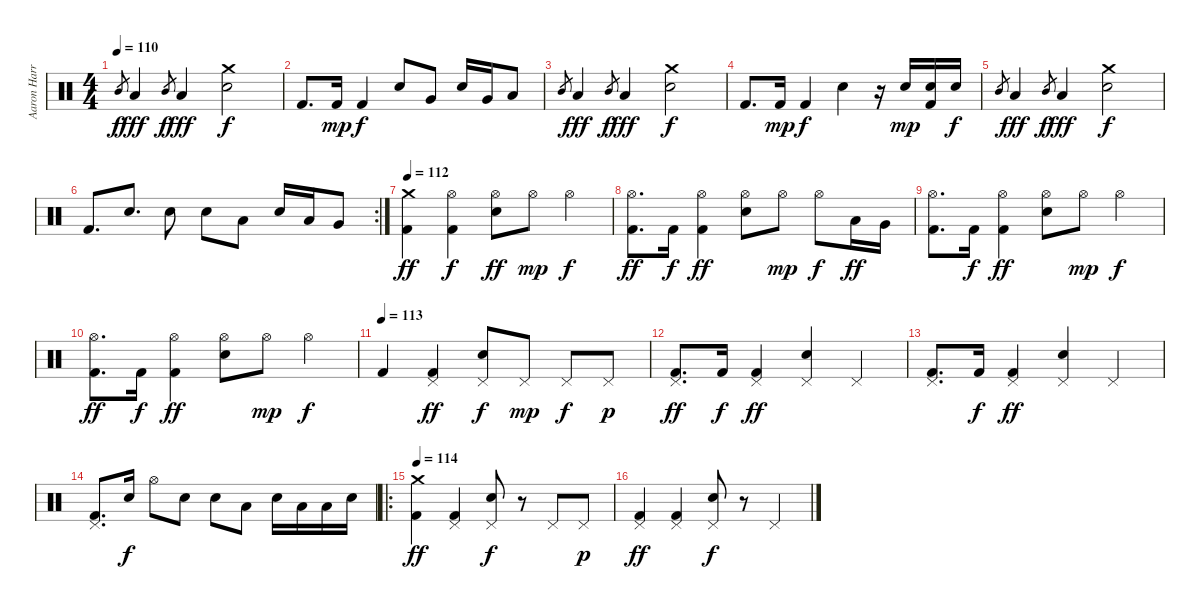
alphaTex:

\track ("Aaron Harris" "Aaron Harr") {instrument percussion}
\staff {score}
\articulation defaults
\ts (4 4)
\tempo 110
\clef neutral
\ks c "Mid Tom (hit)".8{gr dy f} "Low Tom (hit)".4{dy fff} "Mid Tom (hit)".8{gr dy f} "Low Tom (hit)".4{dy fff}
("Crash medium (hit)" "Electric Snare (hit)").2{dy f} |
"Kick (hit) 2".8{d} "Kick (hit) 2".16{dy mp} "Kick (hit) 2".4{dy f} "Electric Snare (hit)".8 "Very Low Tom (hit)".8 "Electric Snare (hit)".16 "Very Low Tom (hit)".16 "Low Floor Tom (hit)".8 |
"Mid Tom (hit)".8{gr} "Low Tom (hit)".4{dy fff} "Mid Tom (hit)".8{gr dy f} "Low Tom (hit)".4{dy fff} ("Crash medium (hit)" "Electric Snare (hit)").2{dy f} |
"Kick (hit) 2".8{d} "Kick (hit) 2".16{dy mp} "Kick (hit) 2".4{dy f} "Electric Snare (hit)".4 r.16 "Electric Snare (hit)".16{dy mp} ("Electric Snare (hit)" "Kick (hit) 2").16 "Electric Snare (hit)".16{dy f} |
"Mid Tom (hit)".8{gr} "Low Tom (hit)".4{dy fff} "Mid Tom (hit)".8{gr dy f} "Low Tom (hit)".4{dy fff} ("Crash medium (hit)" "Electric Snare (hit)").2{dy f} |
\rc 2 "Kick (hit) 2".8{d} "Electric Snare (hit)".8{d} "Electric Snare (hit)".8 "Electric Snare (hit)".8 "Low Tom (hit)".8 "Electric Snare (hit)".16 "Low Tom (hit)".16 "Very Low Tom (hit)".8
|
\tempo 112
("Crash medium (hit)" "Kick (hit) 2").4{dy ff} ("Hi-Hat (open)" "Kick (hit) 2").4{dy f} ("Hi-Hat (open)" "Electric Snare (hit)").8{dy ff} "Hi-Hat (open)".8{dy mp} "Hi-Hat (open)".4{dy f} |
("Hi-Hat (open)" "Kick (hit) 2").8{d dy ff} "Kick (hit) 2".16{dy f} ("Hi-Hat (open)" "Kick (hit) 2").4{dy ff} ("Hi-Hat (open)" "Electric Snare (hit)").8 "Hi-Hat (open)".8{dy mp} "Hi-Hat (open)".8{dy f} "Low Tom (hit)".16{dy ff} "Very Low Tom (hit)".16 |
("Hi-Hat (open)" "Kick (hit) 2").8{d} "Kick (hit) 2".16{dy f} ("Hi-Hat (open)" "Kick (hit) 2").4{dy ff} ("Hi-Hat (open)" "Electric Snare (hit)").8 "Hi-Hat (open)".8{dy mp} "Hi-Hat (open)".4{dy f} |
("Hi-Hat (open)" "Kick (hit) 2").8{d dy ff} "Kick (hit) 2".16{dy f} ("Hi-Hat (open)" "Kick (hit) 2").4{dy ff} ("Hi-Hat (open)" "Electric Snare (hit)").8 "Hi-Hat (open)".8{dy mp} "Hi-Hat (open)".4{dy f} |
\tempo (113)
"Kick (hit) 2".4 ("Pedal Hi-Hat (hit)" "Kick (hit) 2").4{dy ff} ("Pedal Hi-Hat (hit)" "Electric Snare (hit)").8{dy f} "Pedal Hi-Hat (hit)".8{dy mp} "Pedal Hi-Hat (hit)".8{dy f} "Pedal Hi-Hat (hit)".8{dy p} |
("Pedal Hi-Hat (hit)" "Kick (hit) 2").8{d dy ff} "Kick (hit) 2".16{dy f} ("Pedal Hi-Hat (hit)" "Kick (hit) 2").4{dy ff} ("Pedal Hi-Hat (hit)" "Electric Snare (hit)").4 "Pedal Hi-Hat (hit)".4 |
("Pedal Hi-Hat (hit)" "Kick (hit) 2").8{d} "Kick (hit) 2".16{dy f} ("Pedal Hi-Hat (hit)" "Kick (hit) 2").4{dy ff} ("Pedal Hi-Hat (hit)" "Electric Snare (hit)").4 "Pedal Hi-Hat (hit)".4 |
("Pedal Hi-Hat (hit)" "Kick (hit) 2").8{d} "Electric Snare (hit)".16{dy f} "Hi-Hat (open)".8 "Electric Snare (hit)".8 "Electric Snare (hit)".8 "Low Tom (hit)".8 "Electric Snare (hit)".16 "Low Tom (hit)".16 "Low Tom (hit)".16 "Electric Snare (hit)".16 |
\ro
\tempo 114
("Crash medium (hit)" "Kick (hit) 2").4{dy ff} ("Pedal Hi-Hat (hit)" "Kick (hit) 2").4 ("Pedal Hi-Hat (hit)" "Electric Snare (hit)").8{dy f} r.8 "Pedal Hi-Hat (hit)".8 "Pedal Hi-Hat (hit)".8{dy p} |
("Pedal Hi-Hat (hit)" "Kick (hit) 2").4{dy ff} ("Pedal Hi-Hat (hit)" "Kick (hit) 2").4 ("Pedal Hi-Hat (hit)" "Electric Snare (hit)").8{dy f} r.8 "Pedal Hi-Hat (hit)".4
